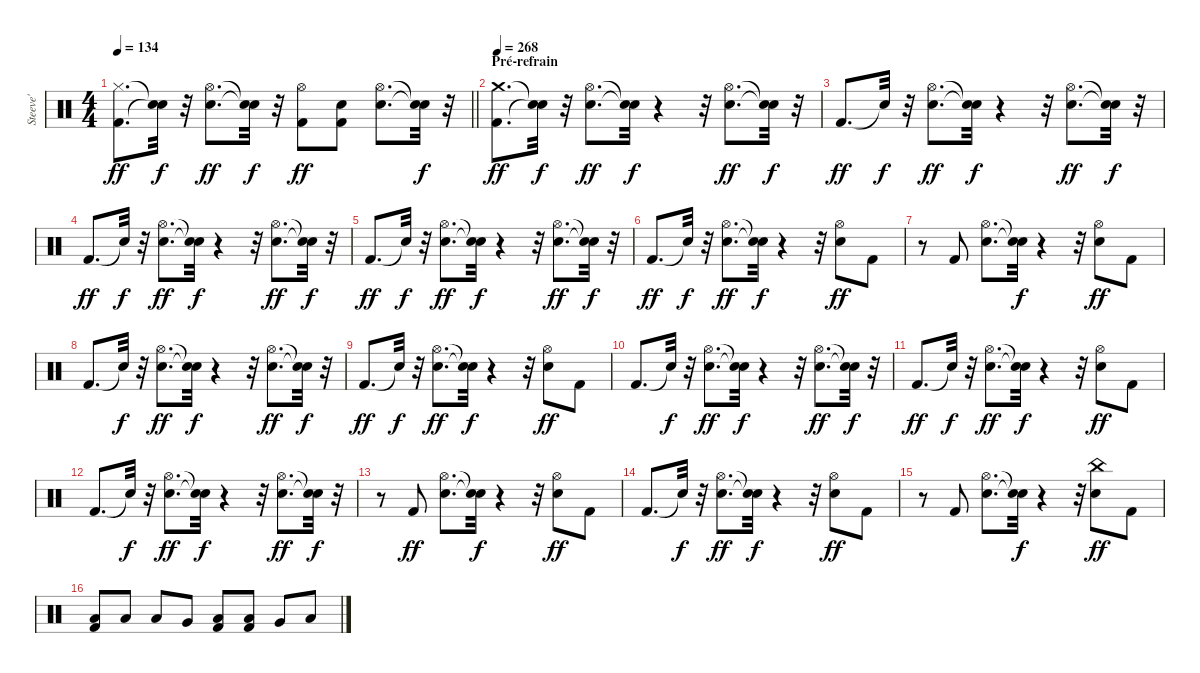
\track ("Steeve'" "Steeve'") {instrument percussion}
\staff {score}
\articulation defaults
\ts (4 4)
\tempo 134
\clef neutral
\barLineRight lightlight
\ks c
("Kick (hit) 2" "Hi-Hat (closed)").8{d dy ff} ("Snare (hit)"{t} "Snare (hit)"{t}).32{dy f} r.32 ("Electric Snare (hit)" "Hi-Hat (open)").8{d dy ff} ("Snare (hit)"{t} "Snare (hit)"{t}).32{dy f} r.32 ("Kick (hit) 2" "Hi-Hat (open)").8{dy ff} ("Kick (hit) 2" "Electric Snare (hit)").8 ("Electric Snare (hit)" "Hi-Hat (open)").8{d} ("Snare (hit)"{t} "Snare (hit)"{t}).32{dy f} r.32 |
\section ("" "Pré-refrain")
\tempo 268
("Kick (hit) 2" "Crash medium (hit)").8{d dy ff} ("Snare (hit)"{t} "Snare (hit)"{t}).32{dy f} r.32 ("Electric Snare (hit)" "Hi-Hat (open)").8{d dy ff} ("Snare (hit)"{t} "Snare (hit)"{t}).32{dy f} r.4 r.32 ("Electric Snare (hit)" "Hi-Hat (open)").8{d dy ff} ("Snare (hit)"{t} "Snare (hit)"{t}).32{dy f} r.32 |
"Kick (hit) 2".8{d dy ff} "Snare (hit)"{t}.32{dy f} r.32 ("Electric Snare (hit)" "Hi-Hat (open)").8{d dy ff} ("Snare (hit)"{t} "Snare (hit)"{t}).32{dy f} r.4 r.32 ("Electric Snare (hit)" "Hi-Hat (open)").8{d dy ff} ("Snare (hit)"{t} "Snare (hit)"{t}).32{dy f} r.32 |
"Kick (hit) 2".8{d dy ff} "Snare (hit)"{t}.32{dy f} r.32 ("Electric Snare (hit)" "Hi-Hat (open)").8{d dy ff} ("Snare (hit)"{t} "Snare (hit)"{t}).32{dy f} r.4 r.32 ("Electric Snare (hit)" "Hi-Hat (open)").8{d dy ff} ("Snare (hit)"{t} "Snare (hit)"{t}).32{dy f} r.32 |
"Kick (hit) 2".8{d dy ff} "Snare (hit)"{t}.32{dy f} r.32 ("Electric Snare (hit)" "Hi-Hat (open)").8{d dy ff} ("Snare (hit)"{t} "Snare (hit)"{t}).32{dy f} r.4 r.32 ("Electric Snare (hit)" "Hi-Hat (open)").8{d dy ff} ("Snare (hit)"{t} "Snare (hit)"{t}).32{dy f} r.32 |
"Kick (hit) 2".8{d dy ff} "Snare (hit)"{t}.32{dy f} r.32 ("Electric Snare (hit)" "Hi-Hat (open)").8{d dy ff} ("Snare (hit)"{t} "Snare (hit)"{t}).32{dy f} r.4 r.32 ("Electric Snare (hit)" "Hi-Hat (open)").8{dy ff} "Kick (hit) 2".8 |
r.8 "Kick (hit) 2".8 ("Electric Snare (hit)" "Hi-Hat (open)").8{d} ("Snare (hit)"{t} "Snare (hit)"{t}).32{dy f} r.4 r.32 ("Electric Snare (hit)" "Hi-Hat (open)").8{dy ff} "Kick (hit) 2".8 |
"Kick (hit) 2".8{d} "Snare (hit)"{t}.32{dy f} r.32 ("Electric Snare (hit)" "Hi-Hat (open)").8{d dy ff} ("Snare (hit)"{t} "Snare (hit)"{t}).32{dy f} r.4 r.32 ("Electric Snare (hit)" "Hi-Hat (open)").8{d dy ff} ("Snare (hit)"{t} "Snare (hit)"{t}).32{dy f} r.32 |
"Kick (hit) 2".8{d dy ff} "Snare (hit)"{t}.32{dy f} r.32 ("Electric Snare (hit)" "Hi-Hat (open)").8{d dy ff} ("Snare (hit)"{t} "Snare (hit)"{t}).32{dy f} r.4 r.32 ("Electric Snare (hit)" "Hi-Hat (open)").8{dy ff} "Kick (hit) 2".8 |
"Kick (hit) 2".8{d} "Snare (hit)"{t}.32{dy f} r.32 ("Electric Snare (hit)" "Hi-Hat (open)").8{d dy ff} ("Snare (hit)"{t} "Snare (hit)"{t}).32{dy f} r.4 r.32 ("Electric Snare (hit)" "Hi-Hat (open)").8{d dy ff} ("Snare (hit)"{t} "Snare (hit)"{t}).32{dy f} r.32 |
"Kick (hit) 2".8{d dy ff} "Snare (hit)"{t}.32{dy f} r.32 ("Electric Snare (hit)" "Hi-Hat (open)").8{d dy ff} ("Snare (hit)"{t} "Snare (hit)"{t}).32{dy f} r.4 r.32 ("Electric Snare (hit)" "Hi-Hat (open)").8{dy ff} "Kick (hit) 2".8 |
"Kick (hit) 2".8{d} "Snare (hit)"{t}.32{dy f} r.32 ("Electric Snare (hit)" "Hi-Hat (open)").8{d dy ff} ("Snare (hit)"{t} "Snare (hit)"{t}).32{dy f} r.4 r.32 ("Electric Snare (hit)" "Hi-Hat (open)").8{d dy ff} ("Snare (hit)"{t} "Snare (hit)"{t}).32{dy f} r.32 |
r.8 "Kick (hit) 2".8{dy ff} ("Electric Snare (hit)" "Hi-Hat (open)").8{d} ("Snare (hit)"{t} "Snare (hit)"{t}).32{dy f} r.4 r.32 ("Electric Snare (hit)" "Hi-Hat (open)").8{dy ff} "Kick (hit) 2".8 |
"Kick (hit) 2".8{d} "Snare (hit)"{t}.32{dy f} r.32 ("Electric Snare (hit)" "Hi-Hat (open)").8{d dy ff} ("Snare (hit)"{t} "Snare (hit)"{t}).32{dy f} r.4 r.32 ("Electric Snare (hit)" "Hi-Hat (open)").8{dy ff} "Kick (hit) 2".8 |
r.8 "Kick (hit) 2".8 ("Electric Snare (hit)" "Hi-Hat (open)").8{d} ("Snare (hit)"{t} "Snare (hit)"{t}).32{dy f} r.4 r.32 ("Electric Snare (hit)" "China (hit)").8{dy ff} "Kick (hit) 2".8 |
("Kick (hit) 2" "Low Floor Tom (hit)").8 "Low Floor Tom (hit)".8 "Low Tom (hit)".8 "Very Low Tom (hit)".8 ("Kick (hit) 2" "Low Floor Tom (hit)").8 ("Kick (hit) 2" "Low Tom (hit)").8 "Very Low Tom (hit)".8 "Low Floor Tom (hit)".8
